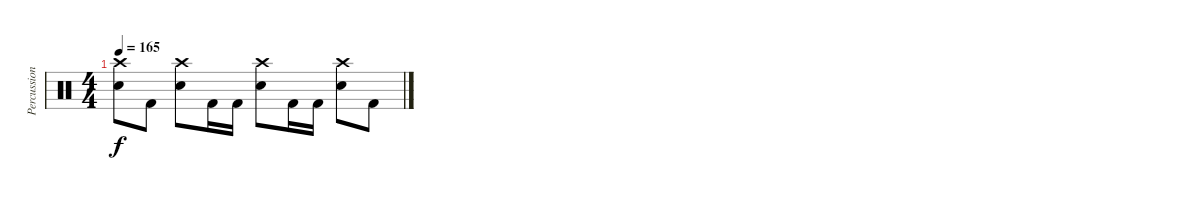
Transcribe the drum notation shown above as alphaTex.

\track ("Percussion" "Percussion") {instrument percussion}
\staff {score}
\articulation defaults
\ts (4 4)
\tempo 165
\clef neutral
\ks c
("Crash high (hit)" "Electric Snare (hit)").8{dy f} "Kick (hit) 2".8 ("Crash high (hit)" "Electric Snare (hit)").8 "Kick (hit) 2".16 "Kick (hit) 2".16 ("Crash high (hit)" "Electric Snare (hit)").8 "Kick (hit) 2".16 "Kick (hit) 2".16 ("Crash high (hit)" "Electric Snare (hit)").8 "Kick (hit) 2".8
